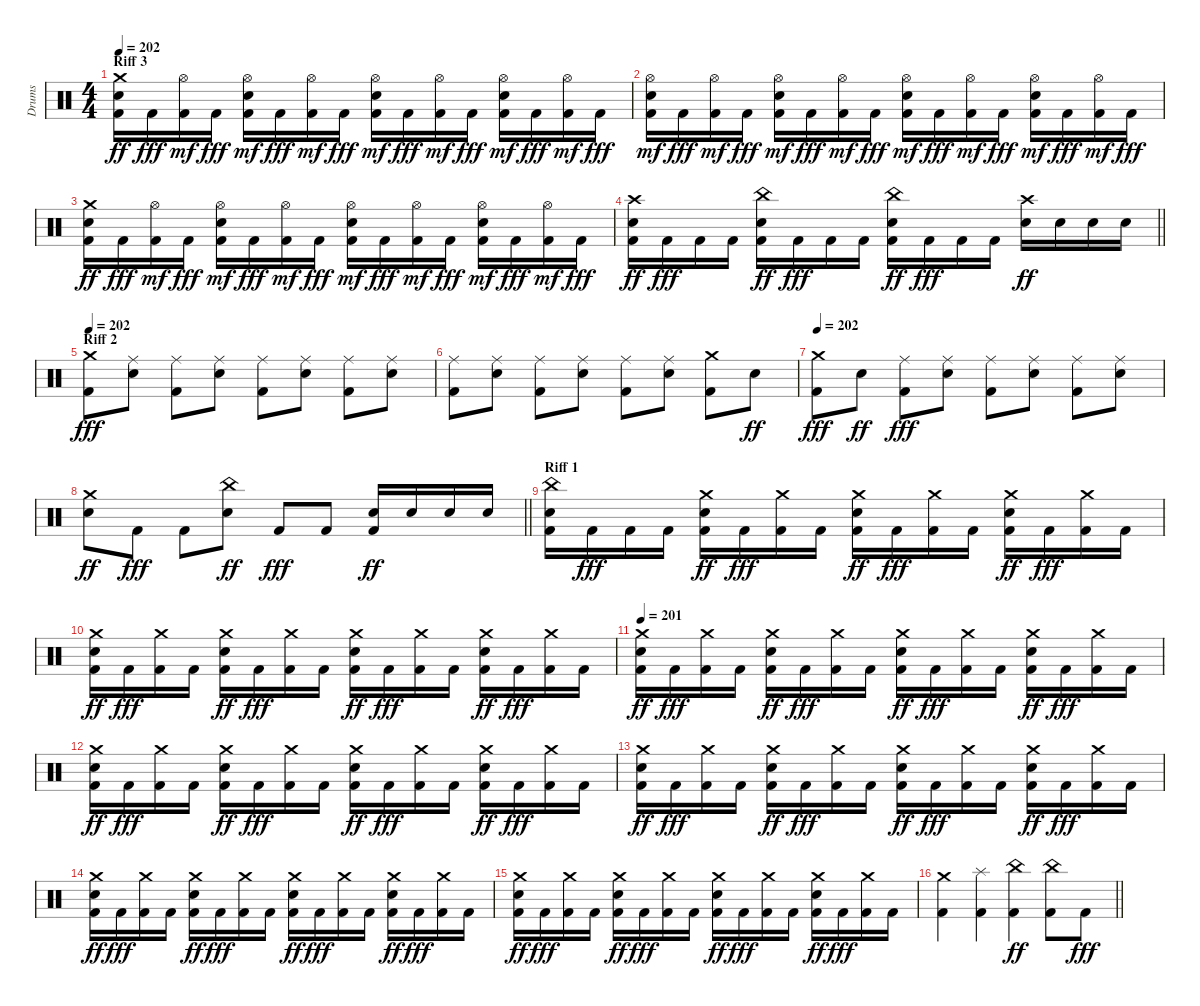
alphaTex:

\track ("Drums" "Drums") {instrument percussion}
\staff {score}
\articulation defaults
\ts (4 4)
\section ("" "Riff 3")
\tempo 202
\clef neutral
\ks c
("Kick (hit) 2" "Snare (hit) 2" "Crash medium (hit)").16{dy ff} "Kick (hit) 2".16{dy fff} ("Kick (hit) 2" "Hi-Hat (open)").16{dy mf} "Kick (hit) 2".16{dy fff} ("Kick (hit) 2" "Snare (hit) 2" "Hi-Hat (open)").16{dy mf} "Kick (hit) 2".16{dy fff} ("Kick (hit) 2" "Hi-Hat (open)").16{dy mf} "Kick (hit) 2".16{dy fff} ("Kick (hit) 2" "Snare (hit) 2" "Hi-Hat (open)").16{dy mf} "Kick (hit) 2".16{dy fff} ("Kick (hit) 2" "Hi-Hat (open)").16{dy mf} "Kick (hit) 2".16{dy fff} ("Kick (hit) 2" "Snare (hit) 2" "Hi-Hat (open)").16{dy mf} "Kick (hit) 2".16{dy fff} ("Kick (hit) 2" "Hi-Hat (open)").16{dy mf} "Kick (hit) 2".16{dy fff} |
("Kick (hit) 2" "Snare (hit) 2" "Hi-Hat (open)").16{dy mf} "Kick (hit) 2".16{dy fff} ("Kick (hit) 2" "Hi-Hat (open)").16{dy mf} "Kick (hit) 2".16{dy fff} ("Kick (hit) 2" "Snare (hit) 2" "Hi-Hat (open)").16{dy mf} "Kick (hit) 2".16{dy fff} ("Kick (hit) 2" "Hi-Hat (open)").16{dy mf} "Kick (hit) 2".16{dy fff} ("Kick (hit) 2" "Snare (hit) 2" "Hi-Hat (open)").16{dy mf} "Kick (hit) 2".16{dy fff} ("Kick (hit) 2" "Hi-Hat (open)").16{dy mf} "Kick (hit) 2".16{dy fff} ("Kick (hit) 2" "Snare (hit) 2" "Hi-Hat (open)").16{dy mf} "Kick (hit) 2".16{dy fff} ("Kick (hit) 2" "Hi-Hat (open)").16{dy mf} "Kick (hit) 2".16{dy fff} |
("Kick (hit) 2" "Snare (hit) 2" "Crash medium (hit)").16{dy ff} "Kick (hit) 2".16{dy fff} ("Kick (hit) 2" "Hi-Hat (open)").16{dy mf} "Kick (hit) 2".16{dy fff} ("Kick (hit) 2" "Snare (hit) 2" "Hi-Hat (open)").16{dy mf} "Kick (hit) 2".16{dy fff} ("Kick (hit) 2" "Hi-Hat (open)").16{dy mf} "Kick (hit) 2".16{dy fff} ("Kick (hit) 2" "Snare (hit) 2" "Hi-Hat (open)").16{dy mf} "Kick (hit) 2".16{dy fff} ("Kick (hit) 2" "Hi-Hat (open)").16{dy mf} "Kick (hit) 2".16{dy fff} ("Kick (hit) 2" "Snare (hit) 2" "Hi-Hat (open)").16{dy mf} "Kick (hit) 2".16{dy fff} ("Kick (hit) 2" "Hi-Hat (open)").16{dy mf} "Kick (hit) 2".16{dy fff} |
\barLineRight lightlight
("Kick (hit) 2" "Snare (hit) 2" "Crash high (hit)").16{dy ff} "Kick (hit) 2".16{dy fff} "Kick (hit) 2".16 "Kick (hit) 2".16 ("Kick (hit) 2" "Snare (hit) 2" "China (hit)").16{dy ff} "Kick (hit) 2".16{dy fff} "Kick (hit) 2".16 "Kick (hit) 2".16 ("Kick (hit) 2" "Snare (hit) 2" "China (hit)").16{dy ff} "Kick (hit) 2".16{dy fff} "Kick (hit) 2".16 "Kick (hit) 2".16 ("Snare (hit) 2" "Crash high (hit)").16{dy ff} "Snare (hit) 2".16 "Snare (hit) 2".16 "Snare (hit) 2".16 |
\section ("" "Riff 2")
\tempo 202
("Kick (hit) 2" "Crash medium (hit)").8{dy fff} ("Snare (hit) 2" "Ride (middle)").8 ("Kick (hit) 2" "Ride (middle)").8 ("Snare (hit) 2" "Ride (middle)").8 ("Kick (hit) 2" "Ride (middle)").8 ("Snare (hit) 2" "Ride (middle)").8 ("Kick (hit) 2" "Ride (middle)").8 ("Snare (hit) 2" "Ride (middle)").8 |
("Kick (hit) 2" "Ride (middle)").8 ("Snare (hit) 2" "Ride (middle)").8 ("Kick (hit) 2" "Ride (middle)").8 ("Snare (hit) 2" "Ride (middle)").8 ("Kick (hit) 2" "Ride (middle)").8 ("Snare (hit) 2" "Ride (middle)").8 ("Kick (hit) 2" "Crash medium (hit)").8 "Snare (hit) 2".8{dy ff} |
\tempo 202
("Kick (hit) 2" "Crash medium (hit)").8{dy fff} "Snare (hit) 2".8{dy ff} ("Kick (hit) 2" "Ride (middle)").8{dy fff} ("Snare (hit) 2" "Ride (middle)").8 ("Kick (hit) 2" "Ride (middle)").8 ("Snare (hit) 2" "Ride (middle)").8 ("Kick (hit) 2" "Ride (middle)").8 ("Snare (hit) 2" "Ride (middle)").8 |
\barLineRight lightlight
("Snare (hit) 2" "Crash medium (hit)").8{dy ff} "Kick (hit) 2".8{dy fff} "Kick (hit) 2".8 ("Snare (hit) 2" "China (hit)").8{dy ff} "Kick (hit) 2".8{dy fff} "Kick (hit) 2".8 ("Kick (hit) 2" "Snare (hit) 2").16{dy ff} "Snare (hit) 2".16 "Snare (hit) 2".16 "Snare (hit) 2".16 |
\section ("" "Riff 1")
("Kick (hit) 2" "Snare (hit) 2" "China (hit)").16 "Kick (hit) 2".16{dy fff} "Kick (hit) 2".16 "Kick (hit) 2".16 ("Kick (hit) 2" "Snare (hit) 2" "Crash medium (hit)").16{dy ff} "Kick (hit) 2".16{dy fff} ("Kick (hit) 2" "Crash medium (hit)").16 "Kick (hit) 2".16 ("Kick (hit) 2" "Snare (hit) 2" "Crash medium (hit)").16{dy ff} "Kick (hit) 2".16{dy fff} ("Kick (hit) 2" "Crash medium (hit)").16 "Kick (hit) 2".16 ("Kick (hit) 2" "Snare (hit) 2" "Crash medium (hit)").16{dy ff} "Kick (hit) 2".16{dy fff} ("Kick (hit) 2" "Crash medium (hit)").16 "Kick (hit) 2".16 |
("Kick (hit) 2" "Snare (hit) 2" "Crash medium (hit)").16{dy ff} "Kick (hit) 2".16{dy fff} ("Kick (hit) 2" "Crash medium (hit)").16 "Kick (hit) 2".16 ("Kick (hit) 2" "Snare (hit) 2" "Crash medium (hit)").16{dy ff} "Kick (hit) 2".16{dy fff} ("Kick (hit) 2" "Crash medium (hit)").16 "Kick (hit) 2".16 ("Kick (hit) 2" "Snare (hit) 2" "Crash medium (hit)").16{dy ff} "Kick (hit) 2".16{dy fff} ("Kick (hit) 2" "Crash medium (hit)").16 "Kick (hit) 2".16 ("Kick (hit) 2" "Snare (hit) 2" "Crash medium (hit)").16{dy ff} "Kick (hit) 2".16{dy fff} ("Kick (hit) 2" "Crash medium (hit)").16 "Kick (hit) 2".16 |
\tempo 201
("Kick (hit) 2" "Snare (hit) 2" "Crash medium (hit)").16{dy ff} "Kick (hit) 2".16{dy fff} ("Kick (hit) 2" "Crash medium (hit)").16 "Kick (hit) 2".16 ("Kick (hit) 2" "Snare (hit) 2" "Crash medium (hit)").16{dy ff} "Kick (hit) 2".16{dy fff} ("Kick (hit) 2" "Crash medium (hit)").16 "Kick (hit) 2".16 ("Kick (hit) 2" "Snare (hit) 2" "Crash medium (hit)").16{dy ff} "Kick (hit) 2".16{dy fff} ("Kick (hit) 2" "Crash medium (hit)").16 "Kick (hit) 2".16 ("Kick (hit) 2" "Snare (hit) 2" "Crash medium (hit)").16{dy ff} "Kick (hit) 2".16{dy fff} ("Kick (hit) 2" "Crash medium (hit)").16 "Kick (hit) 2".16 |
("Kick (hit) 2" "Snare (hit) 2" "Crash medium (hit)").16{dy ff} "Kick (hit) 2".16{dy fff} ("Kick (hit) 2" "Crash medium (hit)").16 "Kick (hit) 2".16 ("Kick (hit) 2" "Snare (hit) 2" "Crash medium (hit)").16{dy ff} "Kick (hit) 2".16{dy fff} ("Kick (hit) 2" "Crash medium (hit)").16 "Kick (hit) 2".16 ("Kick (hit) 2" "Snare (hit) 2" "Crash medium (hit)").16{dy ff} "Kick (hit) 2".16{dy fff} ("Kick (hit) 2" "Crash medium (hit)").16 "Kick (hit) 2".16 ("Kick (hit) 2" "Snare (hit) 2" "Crash medium (hit)").16{dy ff} "Kick (hit) 2".16{dy fff} ("Kick (hit) 2" "Crash medium (hit)").16 "Kick (hit) 2".16 |
("Kick (hit) 2" "Snare (hit) 2" "Crash medium (hit)").16{dy ff} "Kick (hit) 2".16{dy fff} ("Kick (hit) 2" "Crash medium (hit)").16 "Kick (hit) 2".16 ("Kick (hit) 2" "Snare (hit) 2" "Crash medium (hit)").16{dy ff} "Kick (hit) 2".16{dy fff} ("Kick (hit) 2" "Crash medium (hit)").16 "Kick (hit) 2".16 ("Kick (hit) 2" "Snare (hit) 2" "Crash medium (hit)").16{dy ff} "Kick (hit) 2".16{dy fff} ("Kick (hit) 2" "Crash medium (hit)").16 "Kick (hit) 2".16 ("Kick (hit) 2" "Snare (hit) 2" "Crash medium (hit)").16{dy ff} "Kick (hit) 2".16{dy fff} ("Kick (hit) 2" "Crash medium (hit)").16 "Kick (hit) 2".16 |
("Kick (hit) 2" "Snare (hit) 2" "Crash medium (hit)").16{dy ff} "Kick (hit) 2".16{dy fff} ("Kick (hit) 2" "Crash medium (hit)").16 "Kick (hit) 2".16 ("Kick (hit) 2" "Snare (hit) 2" "Crash medium (hit)").16{dy ff} "Kick (hit) 2".16{dy fff} ("Kick (hit) 2" "Crash medium (hit)").16 "Kick (hit) 2".16 ("Kick (hit) 2" "Snare (hit) 2" "Crash medium (hit)").16{dy ff} "Kick (hit) 2".16{dy fff} ("Kick (hit) 2" "Crash medium (hit)").16 "Kick (hit) 2".16 ("Kick (hit) 2" "Snare (hit) 2" "Crash medium (hit)").16{dy ff} "Kick (hit) 2".16{dy fff} ("Kick (hit) 2" "Crash medium (hit)").16 "Kick (hit) 2".16 |
("Kick (hit) 2" "Snare (hit) 2" "Crash medium (hit)").16{dy ff} "Kick (hit) 2".16{dy fff} ("Kick (hit) 2" "Crash medium (hit)").16 "Kick (hit) 2".16 ("Kick (hit) 2" "Snare (hit) 2" "Crash medium (hit)").16{dy ff} "Kick (hit) 2".16{dy fff} ("Kick (hit) 2" "Crash medium (hit)").16 "Kick (hit) 2".16 ("Kick (hit) 2" "Snare (hit) 2" "Crash medium (hit)").16{dy ff} "Kick (hit) 2".16{dy fff} ("Kick (hit) 2" "Crash medium (hit)").16 "Kick (hit) 2".16 ("Kick (hit) 2" "Snare (hit) 2" "Crash medium (hit)").16{dy ff} "Kick (hit) 2".16{dy fff} ("Kick (hit) 2" "Crash medium (hit)").16 "Kick (hit) 2".16 |
\barLineRight lightlight
("Kick (hit) 2" "Crash medium (hit)").4 ("Kick (hit) 2" "Splash (hit)").4 ("Kick (hit) 2" "China (hit)").4{dy ff} ("Kick (hit) 2" "China (hit)").8 "Kick (hit) 2".8{dy fff}
